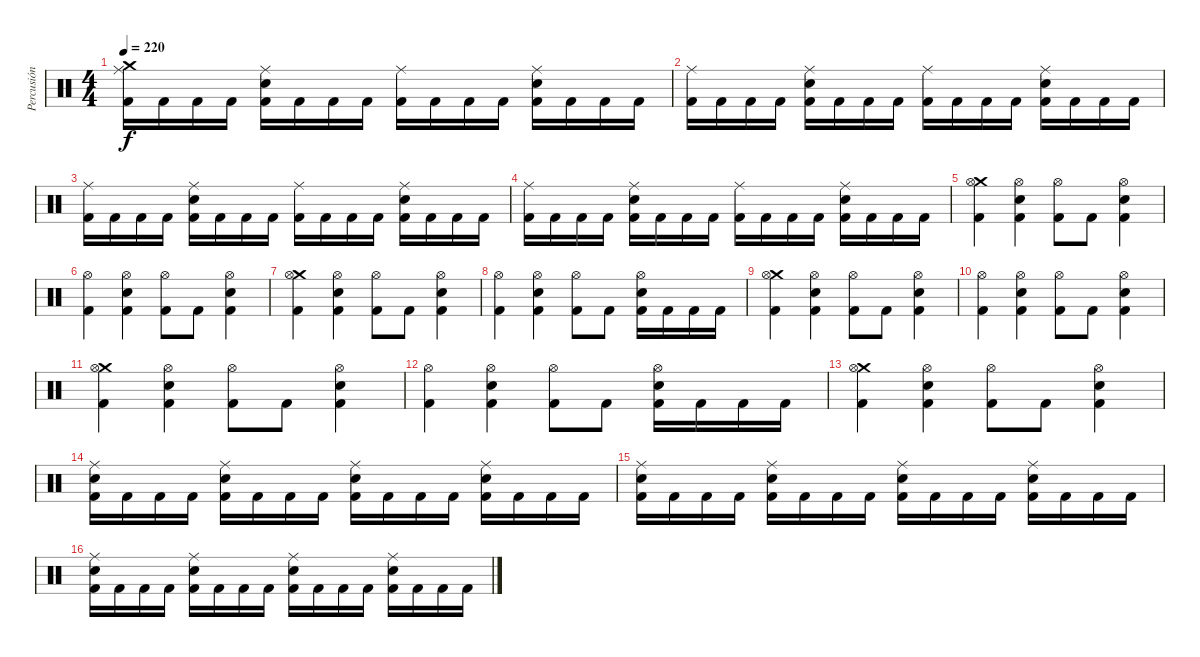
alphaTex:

\track ("Percusión" "Percusión") {instrument percussion}
\staff {score}
\articulation defaults
\ts (4 4)
\tempo 220
\clef neutral
\ks c
("Ride (middle)" "Crash medium (hit)" "Kick (hit) 2").16{dy f} "Kick (hit) 2".16 "Kick (hit) 2".16 "Kick (hit) 2".16 ("Ride (middle)" "Snare (hit) 2" "Kick (hit) 2").16 "Kick (hit) 2".16 "Kick (hit) 2".16 "Kick (hit) 2".16 ("Ride (middle)" "Kick (hit) 2").16 "Kick (hit) 2".16 "Kick (hit) 2".16 "Kick (hit) 2".16 ("Ride (middle)" "Snare (hit) 2" "Kick (hit) 2").16 "Kick (hit) 2".16 "Kick (hit) 2".16 "Kick (hit) 2".16 |
("Ride (middle)" "Kick (hit) 2").16 "Kick (hit) 2".16 "Kick (hit) 2".16 "Kick (hit) 2".16 ("Ride (middle)" "Snare (hit) 2" "Kick (hit) 2").16 "Kick (hit) 2".16 "Kick (hit) 2".16 "Kick (hit) 2".16 ("Ride (middle)" "Kick (hit) 2").16 "Kick (hit) 2".16 "Kick (hit) 2".16 "Kick (hit) 2".16 ("Ride (middle)" "Snare (hit) 2" "Kick (hit) 2").16 "Kick (hit) 2".16 "Kick (hit) 2".16 "Kick (hit) 2".16 |
("Ride (middle)" "Kick (hit) 2").16 "Kick (hit) 2".16 "Kick (hit) 2".16 "Kick (hit) 2".16 ("Ride (middle)" "Snare (hit) 2" "Kick (hit) 2").16 "Kick (hit) 2".16 "Kick (hit) 2".16 "Kick (hit) 2".16 ("Ride (middle)" "Kick (hit) 2").16 "Kick (hit) 2".16 "Kick (hit) 2".16 "Kick (hit) 2".16 ("Ride (middle)" "Snare (hit) 2" "Kick (hit) 2").16 "Kick (hit) 2".16 "Kick (hit) 2".16 "Kick (hit) 2".16 |
("Ride (middle)" "Kick (hit) 2").16 "Kick (hit) 2".16 "Kick (hit) 2".16 "Kick (hit) 2".16 ("Ride (middle)" "Snare (hit) 2" "Kick (hit) 2").16 "Kick (hit) 2".16 "Kick (hit) 2".16 "Kick (hit) 2".16 ("Ride (middle)" "Kick (hit) 2").16 "Kick (hit) 2".16 "Kick (hit) 2".16 "Kick (hit) 2".16 ("Ride (middle)" "Snare (hit) 2" "Kick (hit) 2").16 "Kick (hit) 2".16 "Kick (hit) 2".16 "Kick (hit) 2".16 |
("Crash medium (hit)" "Hi-Hat (open)" "Kick (hit) 2").4 ("Hi-Hat (open)" "Snare (hit) 2" "Kick (hit) 2").4 ("Hi-Hat (open)" "Kick (hit) 2").8 "Kick (hit) 2".8 ("Hi-Hat (open)" "Snare (hit) 2" "Kick (hit) 2").4 |
("Hi-Hat (open)" "Kick (hit) 2").4 ("Hi-Hat (open)" "Snare (hit) 2" "Kick (hit) 2").4 ("Hi-Hat (open)" "Kick (hit) 2").8 "Kick (hit) 2".8 ("Hi-Hat (open)" "Snare (hit) 2" "Kick (hit) 2").4 |
("Crash medium (hit)" "Hi-Hat (open)" "Kick (hit) 2").4 ("Hi-Hat (open)" "Snare (hit) 2" "Kick (hit) 2").4 ("Hi-Hat (open)" "Kick (hit) 2").8 "Kick (hit) 2".8 ("Hi-Hat (open)" "Snare (hit) 2" "Kick (hit) 2").4 |
("Hi-Hat (open)" "Kick (hit) 2").4 ("Hi-Hat (open)" "Snare (hit) 2" "Kick (hit) 2").4 ("Hi-Hat (open)" "Kick (hit) 2").8 "Kick (hit) 2".8 ("Hi-Hat (open)" "Snare (hit) 2" "Kick (hit) 2").16 "Kick (hit) 2".16 "Kick (hit) 2".16 "Kick (hit) 2".16 |
("Crash medium (hit)" "Hi-Hat (open)" "Kick (hit) 2").4 ("Hi-Hat (open)" "Snare (hit) 2" "Kick (hit) 2").4 ("Hi-Hat (open)" "Kick (hit) 2").8 "Kick (hit) 2".8 ("Hi-Hat (open)" "Snare (hit) 2" "Kick (hit) 2").4 |
("Hi-Hat (open)" "Kick (hit) 2").4 ("Hi-Hat (open)" "Snare (hit) 2" "Kick (hit) 2").4 ("Hi-Hat (open)" "Kick (hit) 2").8 "Kick (hit) 2".8 ("Hi-Hat (open)" "Snare (hit) 2" "Kick (hit) 2").4 |
("Crash medium (hit)" "Hi-Hat (open)" "Kick (hit) 2").4 ("Hi-Hat (open)" "Snare (hit) 2" "Kick (hit) 2").4 ("Hi-Hat (open)" "Kick (hit) 2").8 "Kick (hit) 2".8 ("Hi-Hat (open)" "Snare (hit) 2" "Kick (hit) 2").4 |
("Hi-Hat (open)" "Kick (hit) 2").4 ("Hi-Hat (open)" "Snare (hit) 2" "Kick (hit) 2").4 ("Hi-Hat (open)" "Kick (hit) 2").8 "Kick (hit) 2".8 ("Hi-Hat (open)" "Snare (hit) 2" "Kick (hit) 2").16 "Kick (hit) 2".16 "Kick (hit) 2".16 "Kick (hit) 2".16 |
("Crash medium (hit)" "Hi-Hat (open)" "Kick (hit) 2").4 ("Hi-Hat (open)" "Snare (hit) 2" "Kick (hit) 2").4 ("Hi-Hat (open)" "Kick (hit) 2").8 "Kick (hit) 2".8 ("Hi-Hat (open)" "Snare (hit) 2" "Kick (hit) 2").4 |
("Ride (middle)" "Snare (hit) 2" "Kick (hit) 2").16 "Kick (hit) 2".16 "Kick (hit) 2".16 "Kick (hit) 2".16 ("Ride (middle)" "Snare (hit) 2" "Kick (hit) 2").16 "Kick (hit) 2".16 "Kick (hit) 2".16 "Kick (hit) 2".16 ("Ride (middle)" "Snare (hit) 2" "Kick (hit) 2").16 "Kick (hit) 2".16 "Kick (hit) 2".16 "Kick (hit) 2".16 ("Ride (middle)" "Snare (hit) 2" "Kick (hit) 2").16 "Kick (hit) 2".16 "Kick (hit) 2".16 "Kick (hit) 2".16 |
("Ride (middle)" "Snare (hit) 2" "Kick (hit) 2").16 "Kick (hit) 2".16 "Kick (hit) 2".16 "Kick (hit) 2".16 ("Ride (middle)" "Snare (hit) 2" "Kick (hit) 2").16 "Kick (hit) 2".16 "Kick (hit) 2".16 "Kick (hit) 2".16 ("Ride (middle)" "Snare (hit) 2" "Kick (hit) 2").16 "Kick (hit) 2".16 "Kick (hit) 2".16 "Kick (hit) 2".16 ("Ride (middle)" "Snare (hit) 2" "Kick (hit) 2").16 "Kick (hit) 2".16 "Kick (hit) 2".16 "Kick (hit) 2".16 |
("Ride (middle)" "Snare (hit) 2" "Kick (hit) 2").16 "Kick (hit) 2".16 "Kick (hit) 2".16 "Kick (hit) 2".16 ("Ride (middle)" "Snare (hit) 2" "Kick (hit) 2").16 "Kick (hit) 2".16 "Kick (hit) 2".16 "Kick (hit) 2".16 ("Ride (middle)" "Snare (hit) 2" "Kick (hit) 2").16 "Kick (hit) 2".16 "Kick (hit) 2".16 "Kick (hit) 2".16 ("Ride (middle)" "Snare (hit) 2" "Kick (hit) 2").16 "Kick (hit) 2".16 "Kick (hit) 2".16 "Kick (hit) 2".16
